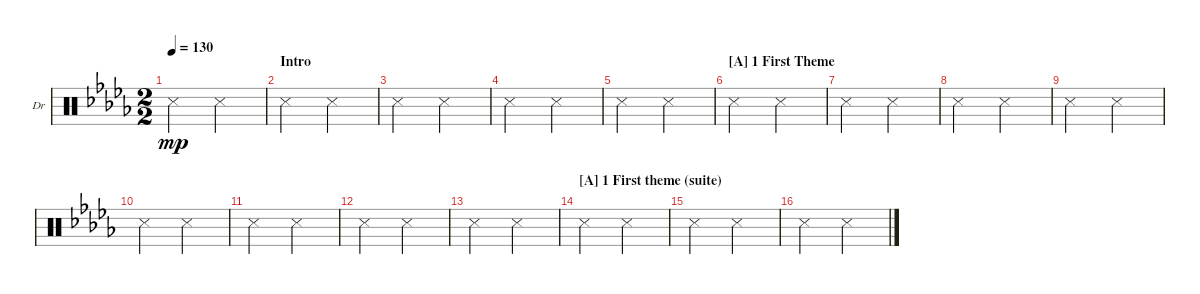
\defaultSystemsLayout 4
\bracketExtendMode nobrackets
\firstSystemTrackNameOrientation horizontal
\otherSystemsTrackNameOrientation horizontal
\chordDiagramsInScore
\track ("Drums" "Dr") {instrument percussion}
\staff {score}
\articulation defaults
\ts (2 2)
\tempo 130
\clef neutral
\scale
0.548387
\ks db "Snare (side stick) 3".2{dy mp} "Snare (side stick) 3".2
|
\section ("" "Intro")
\scale
0.225806 "Snare (side stick) 3".2 "Snare (side stick) 3".2 |
\scale
0.225806 "Snare (side stick) 3".2 "Snare (side stick) 3".2 |
\scale
0.311111 "Snare (side stick) 3".2 "Snare (side stick) 3".2 |
\scale
0.311111 "Snare (side stick) 3".2 "Snare (side stick) 3".2 |
\section ("A" "1 First Theme")
\scale
0.377778 "Snare (side stick) 3".2 "Snare (side stick) 3".2 |
\scale
0.333333 "Snare (side stick) 3".2 "Snare (side stick) 3".2 |
\scale
0.333333 "Snare (side stick) 3".2 "Snare (side stick) 3".2 |
\scale
0.333333 "Snare (side stick) 3".2 "Snare (side stick) 3".2 |
\scale
0.333333 "Snare (side stick) 3".2 "Snare (side stick) 3".2 |
\scale
0.333333 "Snare (side stick) 3".2 "Snare (side stick) 3".2 |
\scale
0.333333 "Snare (side stick) 3".2 "Snare (side stick) 3".2 |
\scale
0.333333 "Snare (side stick) 3".2 "Snare (side stick) 3".2 |
\section ("A" "1 First theme (suite)")
\scale
0.333333 "Snare (side stick) 3".2 "Snare (side stick) 3".2 |
\scale
0.333333 "Snare (side stick) 3".2 "Snare (side stick) 3".2 |
\scale
0.333333 "Snare (side stick) 3".2 "Snare (side stick) 3".2
